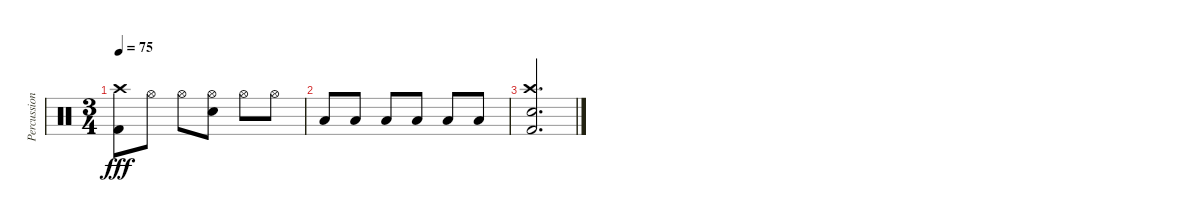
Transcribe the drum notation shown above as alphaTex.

\track ("Percussions" "Percussion") {instrument percussion}
\staff {score}
\articulation defaults
\ts (3 4)
\tempo 75
\clef neutral
\ks c
("Kick (hit) 2" "Crash high (hit)").8{dy fff} "Hi-Hat (open)".8 "Hi-Hat (open)".8 ("Snare (hit) 2" "Hi-Hat (open)").8 "Hi-Hat (open)".8 "Hi-Hat (open)".8 |
"Low Floor Tom (hit)".8 "Low Floor Tom (hit)".8 "Low Floor Tom (hit)".8 "Low Floor Tom (hit)".8 "Low Floor Tom (hit)".8 "Low Floor Tom (hit)".8 |
("Crash high (hit)" "Electric Snare (hit)" "Kick (hit) 2").2{d}
